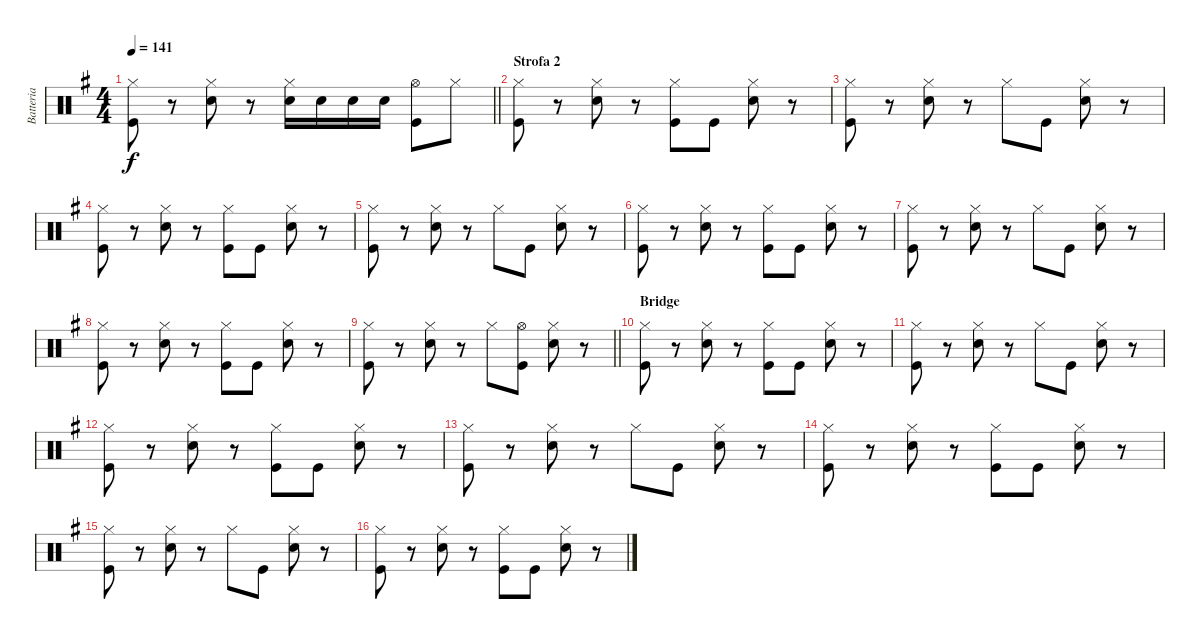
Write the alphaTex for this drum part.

\track ("Batteria" "Batteria") {instrument percussion}
\staff {score}
\articulation defaults
\ts (4 4)
\tempo 141
\clef neutral
\barLineRight lightlight
\ks eminor
("Hi-Hat (closed)" "Kick (hit)").8{dy f} r.8 ("Hi-Hat (closed)" "Electric Snare (hit)").8 r.8 ("Hi-Hat (closed)" "Electric Snare (hit)").16 "Electric Snare (hit)".16 "Electric Snare (hit)".16 "Electric Snare (hit)".16 ("Hi-Hat (open)" "Kick (hit)").8 "Hi-Hat (closed)".8 |
\section ("" "Strofa 2")
("Hi-Hat (closed)" "Kick (hit)").8 r.8 ("Hi-Hat (closed)" "Electric Snare (hit)").8 r.8 ("Hi-Hat (closed)" "Kick (hit)").8 "Kick (hit)".8 ("Hi-Hat (closed)" "Electric Snare (hit)").8 r.8 |
("Hi-Hat (closed)" "Kick (hit)").8 r.8 ("Hi-Hat (closed)" "Electric Snare (hit)").8 r.8 "Hi-Hat (closed)".8 "Kick (hit)".8 ("Hi-Hat (closed)" "Electric Snare (hit)").8 r.8 |
("Hi-Hat (closed)" "Kick (hit)").8 r.8 ("Hi-Hat (closed)" "Electric Snare (hit)").8 r.8 ("Hi-Hat (closed)" "Kick (hit)").8 "Kick (hit)".8 ("Hi-Hat (closed)" "Electric Snare (hit)").8 r.8 |
("Hi-Hat (closed)" "Kick (hit)").8 r.8 ("Hi-Hat (closed)" "Electric Snare (hit)").8 r.8 "Hi-Hat (closed)".8 "Kick (hit)".8 ("Hi-Hat (closed)" "Electric Snare (hit)").8 r.8 |
("Hi-Hat (closed)" "Kick (hit)").8 r.8 ("Hi-Hat (closed)" "Electric Snare (hit)").8 r.8 ("Hi-Hat (closed)" "Kick (hit)").8 "Kick (hit)".8 ("Hi-Hat (closed)" "Electric Snare (hit)").8 r.8 |
("Hi-Hat (closed)" "Kick (hit)").8 r.8 ("Hi-Hat (closed)" "Electric Snare (hit)").8 r.8 "Hi-Hat (closed)".8 "Kick (hit)".8 ("Hi-Hat (closed)" "Electric Snare (hit)").8 r.8 |
("Hi-Hat (closed)" "Kick (hit)").8 r.8 ("Hi-Hat (closed)" "Electric Snare (hit)").8 r.8 ("Hi-Hat (closed)" "Kick (hit)").8 "Kick (hit)".8 ("Hi-Hat (closed)" "Electric Snare (hit)").8 r.8 |
\barLineRight lightlight
("Hi-Hat (closed)" "Kick (hit)").8 r.8 ("Hi-Hat (closed)" "Electric Snare (hit)").8 r.8 "Hi-Hat (closed)".8 ("Hi-Hat (open)" "Kick (hit)").8 ("Hi-Hat (closed)" "Electric Snare (hit)").8 r.8 |
\section ("" "Bridge")
("Hi-Hat (closed)" "Kick (hit)").8 r.8 ("Hi-Hat (closed)" "Electric Snare (hit)").8 r.8 ("Hi-Hat (closed)" "Kick (hit)").8 "Kick (hit)".8 ("Hi-Hat (closed)" "Electric Snare (hit)").8 r.8 |
("Hi-Hat (closed)" "Kick (hit)").8 r.8 ("Hi-Hat (closed)" "Electric Snare (hit)").8 r.8 "Hi-Hat (closed)".8 "Kick (hit)".8 ("Hi-Hat (closed)" "Electric Snare (hit)").8 r.8 |
("Hi-Hat (closed)" "Kick (hit)").8 r.8 ("Hi-Hat (closed)" "Electric Snare (hit)").8 r.8 ("Hi-Hat (closed)" "Kick (hit)").8 "Kick (hit)".8 ("Hi-Hat (closed)" "Electric Snare (hit)").8 r.8 |
("Hi-Hat (closed)" "Kick (hit)").8 r.8 ("Hi-Hat (closed)" "Electric Snare (hit)").8 r.8 "Hi-Hat (closed)".8 "Kick (hit)".8 ("Hi-Hat (closed)" "Electric Snare (hit)").8 r.8 |
("Hi-Hat (closed)" "Kick (hit)").8 r.8 ("Hi-Hat (closed)" "Electric Snare (hit)").8 r.8 ("Hi-Hat (closed)" "Kick (hit)").8 "Kick (hit)".8 ("Hi-Hat (closed)" "Electric Snare (hit)").8 r.8 |
("Hi-Hat (closed)" "Kick (hit)").8 r.8 ("Hi-Hat (closed)" "Electric Snare (hit)").8 r.8 "Hi-Hat (closed)".8 "Kick (hit)".8 ("Hi-Hat (closed)" "Electric Snare (hit)").8 r.8 |
("Hi-Hat (closed)" "Kick (hit)").8 r.8 ("Hi-Hat (closed)" "Electric Snare (hit)").8 r.8 ("Hi-Hat (closed)" "Kick (hit)").8 "Kick (hit)".8 ("Hi-Hat (closed)" "Electric Snare (hit)").8 r.8
